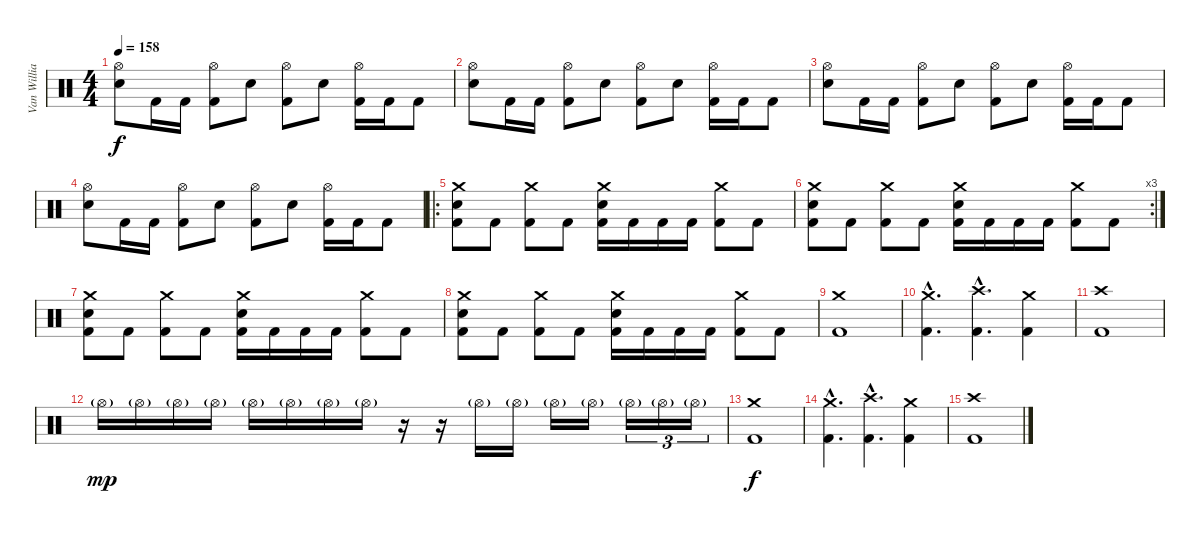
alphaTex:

\track ("Van Williams" "Van Willia") {instrument percussion}
\staff {score}
\articulation defaults
\ts (4 4)
\tempo 158
\clef neutral
\ks c
("Hi-Hat (open)" "Electric Snare (hit)").8{dy f} "Kick (hit) 2".16 "Kick (hit) 2".16 ("Hi-Hat (open)" "Kick (hit) 2").8 "Electric Snare (hit)".8 ("Hi-Hat (open)" "Kick (hit) 2").8 "Electric Snare (hit)".8 ("Hi-Hat (open)" "Kick (hit) 2").16 "Kick (hit) 2".16 "Kick (hit) 2".8 |
("Hi-Hat (open)" "Electric Snare (hit)").8 "Kick (hit) 2".16 "Kick (hit) 2".16 ("Hi-Hat (open)" "Kick (hit) 2").8 "Electric Snare (hit)".8 ("Hi-Hat (open)" "Kick (hit) 2").8 "Electric Snare (hit)".8 ("Hi-Hat (open)" "Kick (hit) 2").16 "Kick (hit) 2".16 "Kick (hit) 2".8 |
("Hi-Hat (open)" "Electric Snare (hit)").8 "Kick (hit) 2".16 "Kick (hit) 2".16 ("Hi-Hat (open)" "Kick (hit) 2").8 "Electric Snare (hit)".8 ("Hi-Hat (open)" "Kick (hit) 2").8 "Electric Snare (hit)".8 ("Hi-Hat (open)" "Kick (hit) 2").16 "Kick (hit) 2".16 "Kick (hit) 2".8 |
("Hi-Hat (open)" "Electric Snare (hit)").8 "Kick (hit) 2".16 "Kick (hit) 2".16 ("Hi-Hat (open)" "Kick (hit) 2").8 "Electric Snare (hit)".8 ("Hi-Hat (open)" "Kick (hit) 2").8 "Electric Snare (hit)".8 ("Hi-Hat (open)" "Kick (hit) 2").16 "Kick (hit) 2".16 "Kick (hit) 2".8 |
\ro
("Crash medium (hit)" "Electric Snare (hit)" "Kick (hit) 2").8 "Kick (hit) 2".8 ("Crash medium (hit)" "Kick (hit) 2").8 "Kick (hit) 2".8 ("Crash medium (hit)" "Electric Snare (hit)" "Kick (hit) 2").16 "Kick (hit) 2".16 "Kick (hit) 2".16 "Kick (hit) 2".16 ("Crash medium (hit)" "Kick (hit) 2").8 "Kick (hit) 2".8 |
\rc 3
("Crash medium (hit)" "Electric Snare (hit)" "Kick (hit) 2").8 "Kick (hit) 2".8 ("Crash medium (hit)" "Kick (hit) 2").8 "Kick (hit) 2".8 ("Crash medium (hit)" "Electric Snare (hit)" "Kick (hit) 2").16 "Kick (hit) 2".16 "Kick (hit) 2".16 "Kick (hit) 2".16 ("Crash medium (hit)" "Kick (hit) 2").8 "Kick (hit) 2".8 |
("Crash medium (hit)" "Electric Snare (hit)" "Kick (hit) 2").8 "Kick (hit) 2".8 ("Crash medium (hit)" "Kick (hit) 2").8 "Kick (hit) 2".8 ("Crash medium (hit)" "Electric Snare (hit)" "Kick (hit) 2").16 "Kick (hit) 2".16 "Kick (hit) 2".16 "Kick (hit) 2".16 ("Crash medium (hit)" "Kick (hit) 2").8 "Kick (hit) 2".8 |
("Crash medium (hit)" "Electric Snare (hit)" "Kick (hit) 2").8 "Kick (hit) 2".8 ("Crash medium (hit)" "Kick (hit) 2").8 "Kick (hit) 2".8 ("Crash medium (hit)" "Electric Snare (hit)" "Kick (hit) 2").16 "Kick (hit) 2".16 "Kick (hit) 2".16 "Kick (hit) 2".16 ("Crash medium (hit)" "Kick (hit) 2").8 "Kick (hit) 2".8 |
("Crash medium (hit)" "Kick (hit) 2").1 |
("Crash medium (hit)"{hac} "Kick (hit) 2"{hac}).4{d} ("Crash high (hit)"{hac} "Kick (hit) 2"{hac}).4{d} ("Crash medium (hit)" "Kick (hit) 2").4 |
("Crash high (hit)" "Kick (hit) 2").1 |
"Hi-Hat (open)"{g}.16{dy mp} "Hi-Hat (open)"{g}.16 "Hi-Hat (open)"{g}.16 "Hi-Hat (open)"{g}.16 "Hi-Hat (open)"{g}.16 "Hi-Hat (open)"{g}.16 "Hi-Hat (open)"{g}.16 "Hi-Hat (open)"{g}.16 r.16 r.16 "Hi-Hat (open)"{g}.16 "Hi-Hat (open)"{g}.16 "Hi-Hat (open)"{g}.16 "Hi-Hat (open)"{g}.16 "Hi-Hat (open)"{g}.16{tu (3 2)} "Hi-Hat (open)"{g}.16{tu (3 2)} "Hi-Hat (open)"{g}.16{tu (3 2)} |
("Crash medium (hit)" "Kick (hit) 2").1{dy f} |
("Crash medium (hit)"{hac} "Kick (hit) 2"{hac}).4{d} ("Crash high (hit)"{hac} "Kick (hit) 2"{hac}).4{d} ("Crash medium (hit)" "Kick (hit) 2").4 |
("Crash high (hit)" "Kick (hit) 2").1
